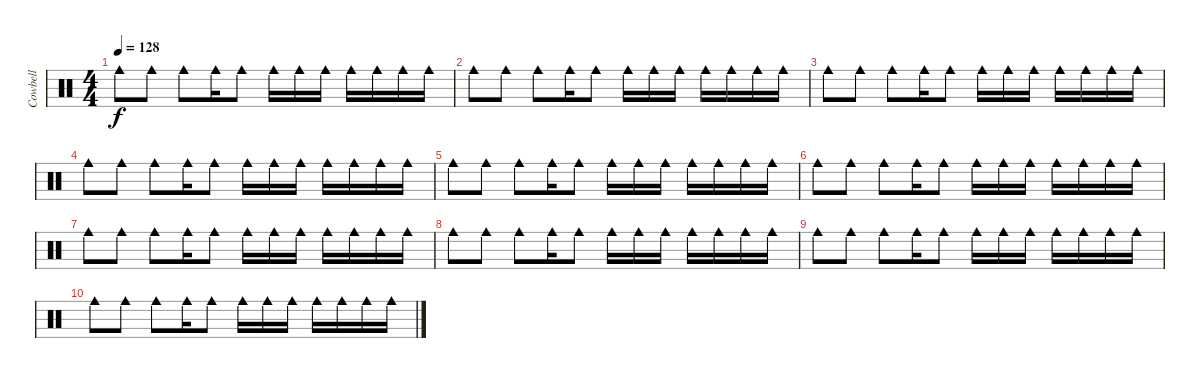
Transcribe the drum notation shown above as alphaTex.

\track ("Cowbell" "Cowbell") {instrument percussion}
\staff {score}
\articulation defaults
\ts (4 4)
\tempo 128
\clef neutral
\ks c "Cowbell medium (hit)".8{dy f} "Cowbell medium (hit)".8 "Cowbell medium (hit)".8 "Cowbell medium (hit)".16 "Cowbell medium (hit)".8 "Cowbell medium (hit)".16 "Cowbell medium (hit)".16 "Cowbell medium (hit)".16 "Cowbell medium (hit)".16 "Cowbell medium (hit)".16 "Cowbell medium (hit)".16 "Cowbell medium (hit)".16
|
"Cowbell medium (hit)".8 "Cowbell medium (hit)".8 "Cowbell medium (hit)".8 "Cowbell medium (hit)".16 "Cowbell medium (hit)".8 "Cowbell medium (hit)".16 "Cowbell medium (hit)".16 "Cowbell medium (hit)".16 "Cowbell medium (hit)".16 "Cowbell medium (hit)".16 "Cowbell medium (hit)".16 "Cowbell medium (hit)".16 |
"Cowbell medium (hit)".8 "Cowbell medium (hit)".8 "Cowbell medium (hit)".8 "Cowbell medium (hit)".16 "Cowbell medium (hit)".8 "Cowbell medium (hit)".16 "Cowbell medium (hit)".16 "Cowbell medium (hit)".16 "Cowbell medium (hit)".16 "Cowbell medium (hit)".16 "Cowbell medium (hit)".16 "Cowbell medium (hit)".16 |
"Cowbell medium (hit)".8 "Cowbell medium (hit)".8 "Cowbell medium (hit)".8 "Cowbell medium (hit)".16 "Cowbell medium (hit)".8 "Cowbell medium (hit)".16 "Cowbell medium (hit)".16 "Cowbell medium (hit)".16 "Cowbell medium (hit)".16 "Cowbell medium (hit)".16 "Cowbell medium (hit)".16 "Cowbell medium (hit)".16 |
"Cowbell medium (hit)".8 "Cowbell medium (hit)".8 "Cowbell medium (hit)".8 "Cowbell medium (hit)".16 "Cowbell medium (hit)".8 "Cowbell medium (hit)".16 "Cowbell medium (hit)".16 "Cowbell medium (hit)".16 "Cowbell medium (hit)".16 "Cowbell medium (hit)".16 "Cowbell medium (hit)".16 "Cowbell medium (hit)".16 |
"Cowbell medium (hit)".8 "Cowbell medium (hit)".8 "Cowbell medium (hit)".8 "Cowbell medium (hit)".16 "Cowbell medium (hit)".8 "Cowbell medium (hit)".16 "Cowbell medium (hit)".16 "Cowbell medium (hit)".16 "Cowbell medium (hit)".16 "Cowbell medium (hit)".16 "Cowbell medium (hit)".16 "Cowbell medium (hit)".16 |
"Cowbell medium (hit)".8 "Cowbell medium (hit)".8 "Cowbell medium (hit)".8 "Cowbell medium (hit)".16 "Cowbell medium (hit)".8 "Cowbell medium (hit)".16 "Cowbell medium (hit)".16 "Cowbell medium (hit)".16 "Cowbell medium (hit)".16 "Cowbell medium (hit)".16 "Cowbell medium (hit)".16 "Cowbell medium (hit)".16 |
"Cowbell medium (hit)".8 "Cowbell medium (hit)".8 "Cowbell medium (hit)".8 "Cowbell medium (hit)".16 "Cowbell medium (hit)".8 "Cowbell medium (hit)".16 "Cowbell medium (hit)".16 "Cowbell medium (hit)".16 "Cowbell medium (hit)".16 "Cowbell medium (hit)".16 "Cowbell medium (hit)".16 "Cowbell medium (hit)".16 |
"Cowbell medium (hit)".8 "Cowbell medium (hit)".8 "Cowbell medium (hit)".8 "Cowbell medium (hit)".16 "Cowbell medium (hit)".8 "Cowbell medium (hit)".16 "Cowbell medium (hit)".16 "Cowbell medium (hit)".16 "Cowbell medium (hit)".16 "Cowbell medium (hit)".16 "Cowbell medium (hit)".16 "Cowbell medium (hit)".16 |
"Cowbell medium (hit)".8 "Cowbell medium (hit)".8 "Cowbell medium (hit)".8 "Cowbell medium (hit)".16 "Cowbell medium (hit)".8 "Cowbell medium (hit)".16 "Cowbell medium (hit)".16 "Cowbell medium (hit)".16 "Cowbell medium (hit)".16 "Cowbell medium (hit)".16 "Cowbell medium (hit)".16 "Cowbell medium (hit)".16
